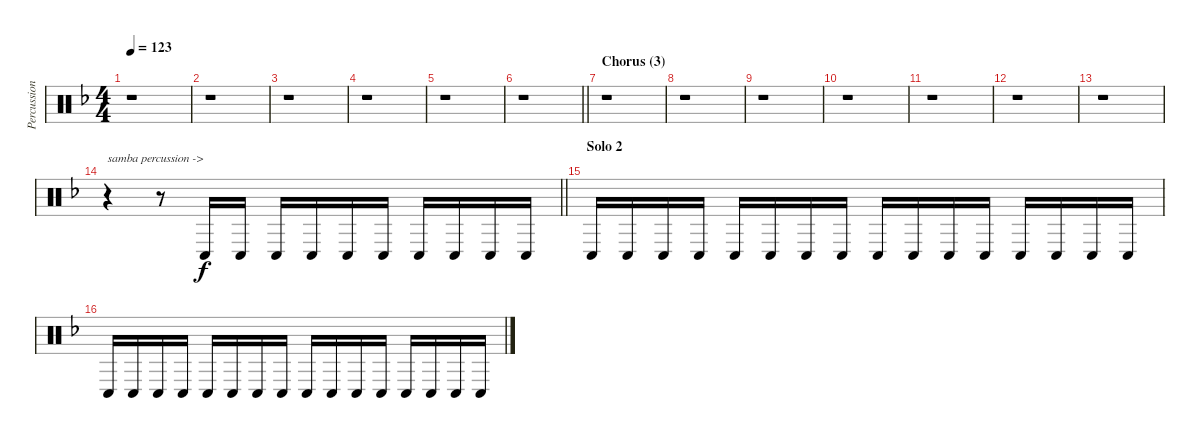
\track ("Percussion" "Percussion") {instrument percussion}
\staff {score}
\articulation defaults
\ts (4 4)
\tempo 123
\clef neutral
\ks dminor
r.1{dy fff} |
r.1 |
r.1 |
r.1 |
r.1 |
\barLineRight lightlight
r.1 |
\section ("" "Chorus (3)")
r.1 |
r.1 |
r.1 |
r.1 |
r.1 |
r.1 |
r.1 |
\barLineRight lightlight
r.4{txt "samba percussion ->"} r.8 "Conga low (hit)".16{dy f} "Conga low (hit)".16 "Conga low (hit)".16 "Conga low (hit)".16 "Conga low (hit)".16 "Conga low (hit)".16 "Conga low (hit)".16 "Conga low (hit)".16 "Conga low (hit)".16 "Conga low (hit)".16 |
\section ("" "Solo 2")
"Conga low (hit)".16 "Conga low (hit)".16 "Conga low (hit)".16 "Conga low (hit)".16 "Conga low (hit)".16 "Conga low (hit)".16 "Conga low (hit)".16 "Conga low (hit)".16 "Conga low (hit)".16 "Conga low (hit)".16 "Conga low (hit)".16 "Conga low (hit)".16 "Conga low (hit)".16 "Conga low (hit)".16 "Conga low (hit)".16 "Conga low (hit)".16 |
"Conga low (hit)".16 "Conga low (hit)".16 "Conga low (hit)".16 "Conga low (hit)".16 "Conga low (hit)".16 "Conga low (hit)".16 "Conga low (hit)".16 "Conga low (hit)".16 "Conga low (hit)".16 "Conga low (hit)".16 "Conga low (hit)".16 "Conga low (hit)".16 "Conga low (hit)".16 "Conga low (hit)".16 "Conga low (hit)".16 "Conga low (hit)".16
